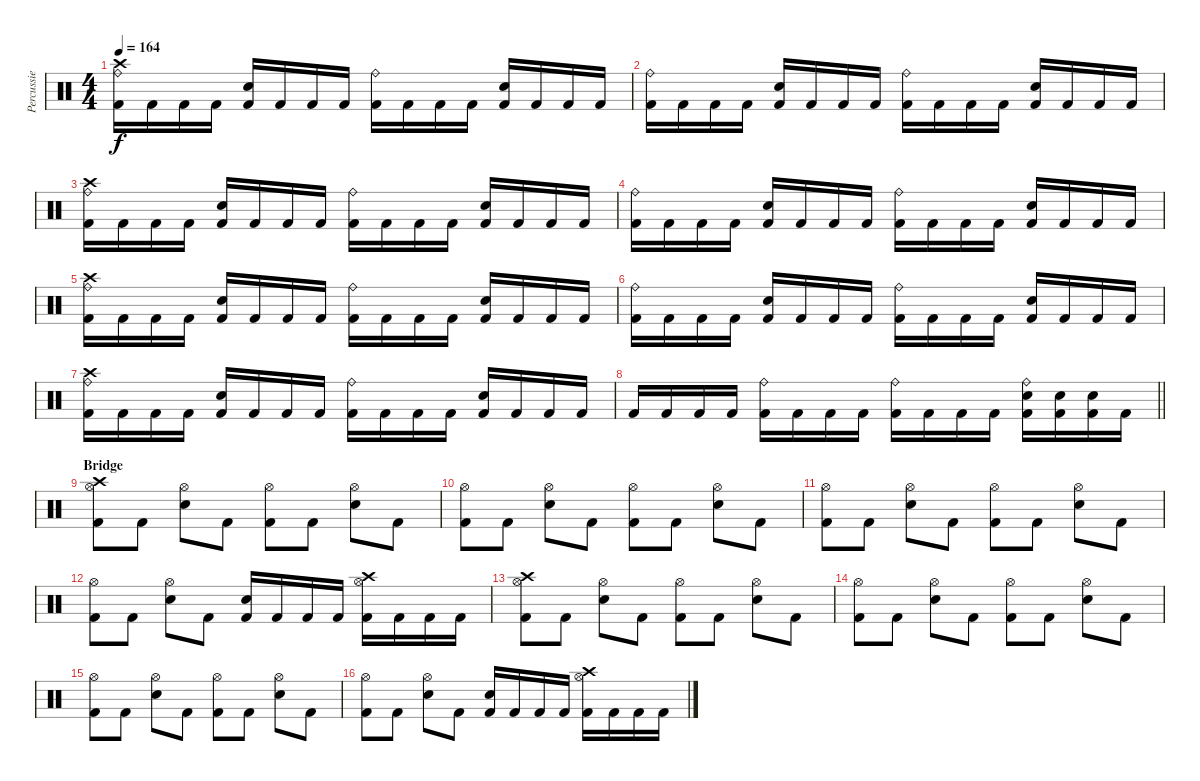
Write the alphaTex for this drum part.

\track ("Percussie" "Percussie") {instrument percussion}
\staff {score}
\articulation defaults
\ts (4 4)
\tempo 164
\clef neutral
\ks c
("Ride (bell)" "Crash high (hit)" "Kick (hit) 2").16{dy f} "Kick (hit) 2".16 "Kick (hit) 2".16 "Kick (hit) 2".16 ("Electric Snare (hit)" "Kick (hit) 2").16 "Kick (hit) 2".16 "Kick (hit) 2".16 "Kick (hit) 2".16 ("Ride (bell)" "Kick (hit) 2").16 "Kick (hit) 2".16 "Kick (hit) 2".16 "Kick (hit) 2".16 ("Electric Snare (hit)" "Kick (hit) 2").16 "Kick (hit) 2".16 "Kick (hit) 2".16 "Kick (hit) 2".16 |
("Ride (bell)" "Kick (hit) 2").16 "Kick (hit) 2".16 "Kick (hit) 2".16 "Kick (hit) 2".16 ("Electric Snare (hit)" "Kick (hit) 2").16 "Kick (hit) 2".16 "Kick (hit) 2".16 "Kick (hit) 2".16 ("Ride (bell)" "Kick (hit) 2").16 "Kick (hit) 2".16 "Kick (hit) 2".16 "Kick (hit) 2".16 ("Electric Snare (hit)" "Kick (hit) 2").16 "Kick (hit) 2".16 "Kick (hit) 2".16 "Kick (hit) 2".16 |
("Ride (bell)" "Crash high (hit)" "Kick (hit) 2").16 "Kick (hit) 2".16 "Kick (hit) 2".16 "Kick (hit) 2".16 ("Electric Snare (hit)" "Kick (hit) 2").16 "Kick (hit) 2".16 "Kick (hit) 2".16 "Kick (hit) 2".16 ("Ride (bell)" "Kick (hit) 2").16 "Kick (hit) 2".16 "Kick (hit) 2".16 "Kick (hit) 2".16 ("Electric Snare (hit)" "Kick (hit) 2").16 "Kick (hit) 2".16 "Kick (hit) 2".16 "Kick (hit) 2".16 |
("Ride (bell)" "Kick (hit) 2").16 "Kick (hit) 2".16 "Kick (hit) 2".16 "Kick (hit) 2".16 ("Electric Snare (hit)" "Kick (hit) 2").16 "Kick (hit) 2".16 "Kick (hit) 2".16 "Kick (hit) 2".16 ("Ride (bell)" "Kick (hit) 2").16 "Kick (hit) 2".16 "Kick (hit) 2".16 "Kick (hit) 2".16 ("Electric Snare (hit)" "Kick (hit) 2").16 "Kick (hit) 2".16 "Kick (hit) 2".16 "Kick (hit) 2".16 |
("Ride (bell)" "Crash high (hit)" "Kick (hit) 2").16 "Kick (hit) 2".16 "Kick (hit) 2".16 "Kick (hit) 2".16 ("Electric Snare (hit)" "Kick (hit) 2").16 "Kick (hit) 2".16 "Kick (hit) 2".16 "Kick (hit) 2".16 ("Ride (bell)" "Kick (hit) 2").16 "Kick (hit) 2".16 "Kick (hit) 2".16 "Kick (hit) 2".16 ("Electric Snare (hit)" "Kick (hit) 2").16 "Kick (hit) 2".16 "Kick (hit) 2".16 "Kick (hit) 2".16 |
("Ride (bell)" "Kick (hit) 2").16 "Kick (hit) 2".16 "Kick (hit) 2".16 "Kick (hit) 2".16 ("Electric Snare (hit)" "Kick (hit) 2").16 "Kick (hit) 2".16 "Kick (hit) 2".16 "Kick (hit) 2".16 ("Ride (bell)" "Kick (hit) 2").16 "Kick (hit) 2".16 "Kick (hit) 2".16 "Kick (hit) 2".16 ("Electric Snare (hit)" "Kick (hit) 2").16 "Kick (hit) 2".16 "Kick (hit) 2".16 "Kick (hit) 2".16 |
("Ride (bell)" "Crash high (hit)" "Kick (hit) 2").16 "Kick (hit) 2".16 "Kick (hit) 2".16 "Kick (hit) 2".16 ("Electric Snare (hit)" "Kick (hit) 2").16 "Kick (hit) 2".16 "Kick (hit) 2".16 "Kick (hit) 2".16 ("Ride (bell)" "Kick (hit) 2").16 "Kick (hit) 2".16 "Kick (hit) 2".16 "Kick (hit) 2".16 ("Electric Snare (hit)" "Kick (hit) 2").16 "Kick (hit) 2".16 "Kick (hit) 2".16 "Kick (hit) 2".16 |
\barLineRight lightlight "Kick (hit) 2".16 "Kick (hit) 2".16 "Kick (hit) 2".16 "Kick (hit) 2".16
("Ride (bell)" "Kick (hit) 2").16 "Kick (hit) 2".16 "Kick (hit) 2".16 "Kick (hit) 2".16 ("Ride (bell)" "Kick (hit) 2").16 "Kick (hit) 2".16 "Kick (hit) 2".16 "Kick (hit) 2".16 ("Ride (bell)" "Electric Snare (hit)" "Kick (hit) 2").16 ("Electric Snare (hit)" "Kick (hit) 2").16 ("Electric Snare (hit)" "Kick (hit) 2").16 "Kick (hit) 2".16 |
\section ("" "Bridge")
("Hi-Hat (open)" "Crash high (hit)" "Kick (hit) 2").8 "Kick (hit) 2".8 ("Hi-Hat (open)" "Electric Snare (hit)").8 "Kick (hit) 2".8 ("Hi-Hat (open)" "Kick (hit) 2").8 "Kick (hit) 2".8 ("Hi-Hat (open)" "Electric Snare (hit)").8 "Kick (hit) 2".8 |
("Hi-Hat (open)" "Kick (hit) 2").8 "Kick (hit) 2".8 ("Hi-Hat (open)" "Electric Snare (hit)").8 "Kick (hit) 2".8 ("Hi-Hat (open)" "Kick (hit) 2").8 "Kick (hit) 2".8 ("Hi-Hat (open)" "Electric Snare (hit)").8 "Kick (hit) 2".8 |
("Hi-Hat (open)" "Kick (hit) 2").8 "Kick (hit) 2".8 ("Hi-Hat (open)" "Electric Snare (hit)").8 "Kick (hit) 2".8 ("Hi-Hat (open)" "Kick (hit) 2").8 "Kick (hit) 2".8 ("Hi-Hat (open)" "Electric Snare (hit)").8 "Kick (hit) 2".8 |
("Hi-Hat (open)" "Kick (hit) 2").8 "Kick (hit) 2".8 ("Hi-Hat (open)" "Electric Snare (hit)").8 "Kick (hit) 2".8 ("Electric Snare (hit)" "Kick (hit) 2").16 "Kick (hit) 2".16 "Kick (hit) 2".16 "Kick (hit) 2".16 ("Hi-Hat (open)" "Crash high (hit)" "Kick (hit) 2").16 "Kick (hit) 2".16 "Kick (hit) 2".16 "Kick (hit) 2".16 |
("Hi-Hat (open)" "Crash high (hit)" "Kick (hit) 2").8 "Kick (hit) 2".8 ("Hi-Hat (open)" "Electric Snare (hit)").8 "Kick (hit) 2".8 ("Hi-Hat (open)" "Kick (hit) 2").8 "Kick (hit) 2".8 ("Hi-Hat (open)" "Electric Snare (hit)").8 "Kick (hit) 2".8 |
("Hi-Hat (open)" "Kick (hit) 2").8 "Kick (hit) 2".8 ("Hi-Hat (open)" "Electric Snare (hit)").8 "Kick (hit) 2".8 ("Hi-Hat (open)" "Kick (hit) 2").8 "Kick (hit) 2".8 ("Hi-Hat (open)" "Electric Snare (hit)").8 "Kick (hit) 2".8 |
("Hi-Hat (open)" "Kick (hit) 2").8 "Kick (hit) 2".8 ("Hi-Hat (open)" "Electric Snare (hit)").8 "Kick (hit) 2".8 ("Hi-Hat (open)" "Kick (hit) 2").8 "Kick (hit) 2".8 ("Hi-Hat (open)" "Electric Snare (hit)").8 "Kick (hit) 2".8 |
("Hi-Hat (open)" "Kick (hit) 2").8 "Kick (hit) 2".8 ("Hi-Hat (open)" "Electric Snare (hit)").8 "Kick (hit) 2".8 ("Electric Snare (hit)" "Kick (hit) 2").16 "Kick (hit) 2".16 "Kick (hit) 2".16 "Kick (hit) 2".16 ("Hi-Hat (open)" "Crash high (hit)" "Kick (hit) 2").16 "Kick (hit) 2".16 "Kick (hit) 2".16 "Kick (hit) 2".16
